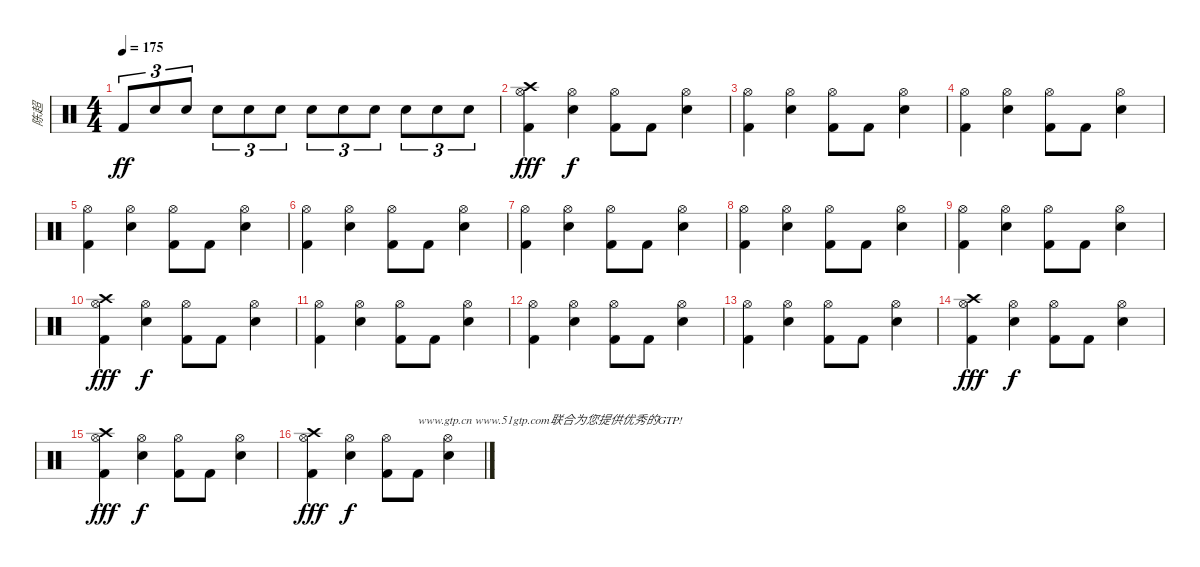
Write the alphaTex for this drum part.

\track ("陈超" "陈超") {instrument percussion}
\staff {score}
\articulation defaults
\ts (4 4)
\tempo 175
\clef neutral
\ks c "Kick (hit) 2".8{tu (3 2) dy ff} "Electric Snare (hit)".8{tu (3 2)} "Electric Snare (hit)".8{tu (3 2)} "Electric Snare (hit)".8{tu (3 2)} "Electric Snare (hit)".8{tu (3 2)} "Electric Snare (hit)".8{tu (3 2)} "Snare (hit) 2".8{tu (3 2)} "Snare (hit) 2".8{tu (3 2)} "Snare (hit) 2".8{tu (3 2)} "Snare (hit) 2".8{tu (3 2)} "Snare (hit) 2".8{tu (3 2)} "Snare (hit) 2".8{tu (3 2)}
|
("Crash high (hit)" "Hi-Hat (open)" "Kick (hit) 2").4{dy fff} ("Hi-Hat (open)" "Electric Snare (hit)").4{dy f} ("Hi-Hat (open)" "Kick (hit) 2").8 "Kick (hit) 2".8 ("Hi-Hat (open)" "Electric Snare (hit)").4 |
("Hi-Hat (open)" "Kick (hit) 2").4 ("Hi-Hat (open)" "Electric Snare (hit)").4 ("Hi-Hat (open)" "Kick (hit) 2").8 "Kick (hit) 2".8 ("Hi-Hat (open)" "Electric Snare (hit)").4 |
("Hi-Hat (open)" "Kick (hit) 2").4 ("Hi-Hat (open)" "Electric Snare (hit)").4 ("Hi-Hat (open)" "Kick (hit) 2").8 "Kick (hit) 2".8 ("Hi-Hat (open)" "Electric Snare (hit)").4 |
("Hi-Hat (open)" "Kick (hit) 2").4 ("Hi-Hat (open)" "Electric Snare (hit)").4 ("Hi-Hat (open)" "Kick (hit) 2").8 "Kick (hit) 2".8 ("Hi-Hat (open)" "Electric Snare (hit)").4 |
("Hi-Hat (open)" "Kick (hit) 2").4 ("Hi-Hat (open)" "Electric Snare (hit)").4 ("Hi-Hat (open)" "Kick (hit) 2").8 "Kick (hit) 2".8 ("Hi-Hat (open)" "Electric Snare (hit)").4 |
("Hi-Hat (open)" "Kick (hit) 2").4 ("Hi-Hat (open)" "Electric Snare (hit)").4 ("Hi-Hat (open)" "Kick (hit) 2").8 "Kick (hit) 2".8 ("Hi-Hat (open)" "Electric Snare (hit)").4 |
("Hi-Hat (open)" "Kick (hit) 2").4 ("Hi-Hat (open)" "Electric Snare (hit)").4 ("Hi-Hat (open)" "Kick (hit) 2").8 "Kick (hit) 2".8 ("Hi-Hat (open)" "Electric Snare (hit)").4 |
("Hi-Hat (open)" "Kick (hit) 2").4 ("Hi-Hat (open)" "Electric Snare (hit)").4 ("Hi-Hat (open)" "Kick (hit) 2").8 "Kick (hit) 2".8 ("Hi-Hat (open)" "Electric Snare (hit)").4 |
("Crash high (hit)" "Hi-Hat (open)" "Kick (hit) 2").4{dy fff} ("Hi-Hat (open)" "Electric Snare (hit)").4{dy f} ("Hi-Hat (open)" "Kick (hit) 2").8 "Kick (hit) 2".8 ("Hi-Hat (open)" "Electric Snare (hit)").4 |
("Hi-Hat (open)" "Kick (hit) 2").4 ("Hi-Hat (open)" "Electric Snare (hit)").4 ("Hi-Hat (open)" "Kick (hit) 2").8 "Kick (hit) 2".8 ("Hi-Hat (open)" "Electric Snare (hit)").4 |
("Hi-Hat (open)" "Kick (hit) 2").4 ("Hi-Hat (open)" "Electric Snare (hit)").4 ("Hi-Hat (open)" "Kick (hit) 2").8 "Kick (hit) 2".8 ("Hi-Hat (open)" "Electric Snare (hit)").4 |
("Hi-Hat (open)" "Kick (hit) 2").4 ("Hi-Hat (open)" "Electric Snare (hit)").4 ("Hi-Hat (open)" "Kick (hit) 2").8 "Kick (hit) 2".8 ("Hi-Hat (open)" "Electric Snare (hit)").4 |
("Crash high (hit)" "Hi-Hat (open)" "Kick (hit) 2").4{dy fff} ("Hi-Hat (open)" "Electric Snare (hit)").4{dy f} ("Hi-Hat (open)" "Kick (hit) 2").8 "Kick (hit) 2".8 ("Hi-Hat (open)" "Electric Snare (hit)").4 |
("Crash high (hit)" "Hi-Hat (open)" "Kick (hit) 2").4{dy fff} ("Hi-Hat (open)" "Electric Snare (hit)").4{dy f} ("Hi-Hat (open)" "Kick (hit) 2").8 "Kick (hit) 2".8 ("Hi-Hat (open)" "Electric Snare (hit)").4 |
("Crash high (hit)" "Hi-Hat (open)" "Kick (hit) 2").4{dy fff} ("Hi-Hat (open)" "Electric Snare (hit)").4{dy f} ("Hi-Hat (open)" "Kick (hit) 2").8 "Kick (hit) 2".8{txt "www.gtp.cn www.51gtp.com联合为您提供优秀的GTP!"} ("Hi-Hat (open)" "Electric Snare (hit)").4
